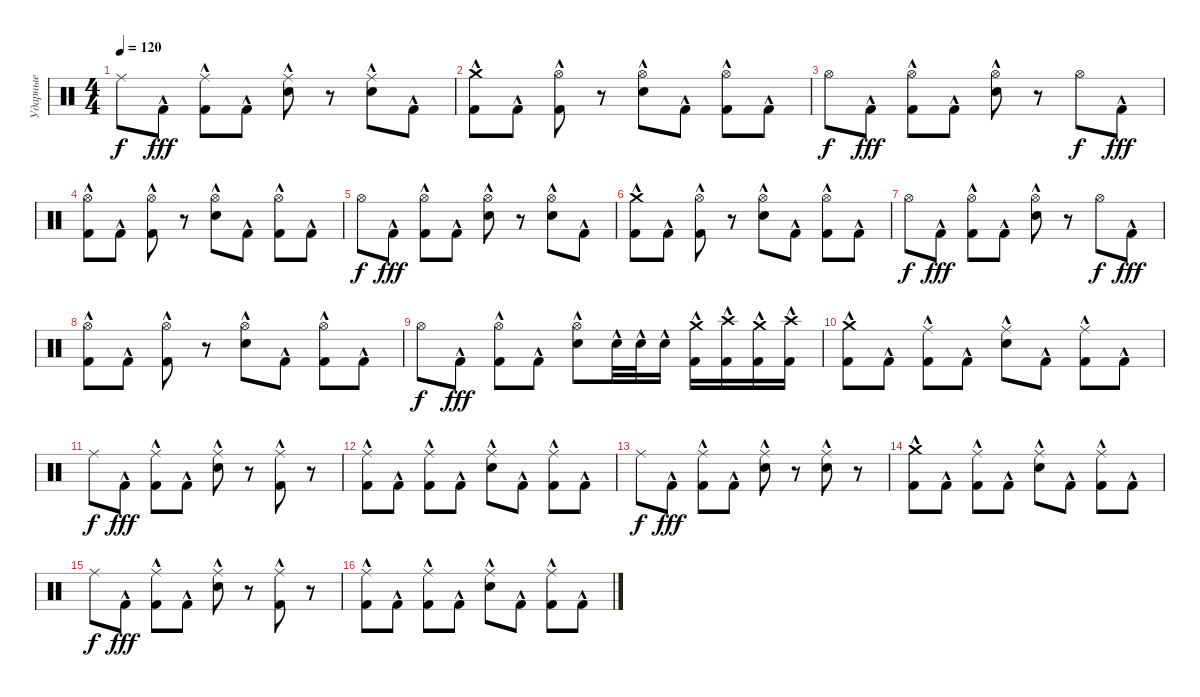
\track ("Ударные" "Ударные") {instrument percussion}
\staff
\articulation defaults
\ts (4 4)
\tempo 120
\clef neutral
\ks c "Ride (middle)".8{dy f} "Kick (hit) 2"{hac}.8{dy fff}
("Ride (middle)" "Kick (hit) 2"{hac}).8 "Kick (hit) 2"{hac}.8 ("Ride (middle)" "Snare (hit) 2"{hac}).8 r.8 ("Ride (middle)" "Snare (hit) 2"{hac}).8 "Kick (hit) 2"{hac}.8 |
("Crash medium (hit)" "Kick (hit) 2"{hac}).8 "Kick (hit) 2"{hac}.8 ("Hi-Hat (open)" "Kick (hit) 2"{hac}).8 r.8 ("Hi-Hat (open)" "Snare (hit) 2"{hac}).8 "Kick (hit) 2"{hac}.8 ("Hi-Hat (open)" "Kick (hit) 2"{hac}).8 "Kick (hit) 2"{hac}.8 |
"Hi-Hat (open)".8{dy f} "Kick (hit) 2"{hac}.8{dy fff} ("Hi-Hat (open)" "Kick (hit) 2"{hac}).8 "Kick (hit) 2"{hac}.8 ("Hi-Hat (open)" "Snare (hit) 2"{hac}).8 r.8 "Hi-Hat (open)".8{dy f} "Kick (hit) 2"{hac}.8{dy fff} |
("Hi-Hat (open)" "Kick (hit) 2"{hac}).8 "Kick (hit) 2"{hac}.8 ("Hi-Hat (open)" "Kick (hit) 2"{hac}).8 r.8 ("Hi-Hat (open)" "Snare (hit) 2"{hac}).8 "Kick (hit) 2"{hac}.8 ("Hi-Hat (open)" "Kick (hit) 2"{hac}).8 "Kick (hit) 2"{hac}.8 |
"Hi-Hat (open)".8{dy f} "Kick (hit) 2"{hac}.8{dy fff} ("Hi-Hat (open)" "Kick (hit) 2"{hac}).8 "Kick (hit) 2"{hac}.8 ("Hi-Hat (open)" "Snare (hit) 2"{hac}).8 r.8 ("Hi-Hat (open)" "Snare (hit) 2"{hac}).8 "Kick (hit) 2"{hac}.8 |
("Crash medium (hit)" "Kick (hit) 2"{hac}).8 "Kick (hit) 2"{hac}.8 ("Hi-Hat (open)" "Kick (hit) 2"{hac}).8 r.8 ("Hi-Hat (open)" "Snare (hit) 2"{hac}).8 "Kick (hit) 2"{hac}.8 ("Hi-Hat (open)" "Kick (hit) 2"{hac}).8 "Kick (hit) 2"{hac}.8 |
"Hi-Hat (open)".8{dy f} "Kick (hit) 2"{hac}.8{dy fff} ("Hi-Hat (open)" "Kick (hit) 2"{hac}).8 "Kick (hit) 2"{hac}.8 ("Hi-Hat (open)" "Snare (hit) 2"{hac}).8 r.8 "Hi-Hat (open)".8{dy f} "Kick (hit) 2"{hac}.8{dy fff} |
("Hi-Hat (open)" "Kick (hit) 2"{hac}).8 "Kick (hit) 2"{hac}.8 ("Hi-Hat (open)" "Kick (hit) 2"{hac}).8 r.8 ("Hi-Hat (open)" "Snare (hit) 2"{hac}).8 "Kick (hit) 2"{hac}.8 ("Hi-Hat (open)" "Kick (hit) 2"{hac}).8 "Kick (hit) 2"{hac}.8 |
"Hi-Hat (open)".8{dy f} "Kick (hit) 2"{hac}.8{dy fff} ("Hi-Hat (open)" "Kick (hit) 2"{hac}).8 "Kick (hit) 2"{hac}.8 ("Hi-Hat (open)" "Snare (hit) 2"{hac}).8 "Snare (hit) 2"{hac}.32 "Snare (hit) 2"{hac}.32 "Snare (hit) 2"{hac}.16 ("Crash medium (hit)" "Kick (hit) 2"{hac}).16 ("Crash high (hit)" "Kick (hit) 2"{hac}).16 ("Crash medium (hit)" "Kick (hit) 2"{hac}).16 ("Crash high (hit)" "Kick (hit) 2"{hac}).16 |
("Crash medium (hit)" "Kick (hit) 2"{hac}).8 "Kick (hit) 2"{hac}.8 ("Ride (middle)" "Kick (hit) 2"{hac}).8 "Kick (hit) 2"{hac}.8 ("Ride (middle)" "Snare (hit) 2"{hac}).8 "Kick (hit) 2"{hac}.8 ("Ride (middle)" "Kick (hit) 2"{hac}).8 "Kick (hit) 2"{hac}.8 |
"Ride (middle)".8{dy f} "Kick (hit) 2"{hac}.8{dy fff} ("Ride (middle)" "Kick (hit) 2"{hac}).8 "Kick (hit) 2"{hac}.8 ("Ride (middle)" "Snare (hit) 2"{hac}).8 r.8 ("Ride (middle)" "Kick (hit) 2"{hac}).8 r.8 |
("Ride (middle)" "Kick (hit) 2"{hac}).8 "Kick (hit) 2"{hac}.8 ("Ride (middle)" "Kick (hit) 2"{hac}).8 "Kick (hit) 2"{hac}.8 ("Ride (middle)" "Snare (hit) 2"{hac}).8 "Kick (hit) 2"{hac}.8 ("Ride (middle)" "Kick (hit) 2"{hac}).8 "Kick (hit) 2"{hac}.8 |
"Ride (middle)".8{dy f} "Kick (hit) 2"{hac}.8{dy fff} ("Ride (middle)" "Kick (hit) 2"{hac}).8 "Kick (hit) 2"{hac}.8 ("Ride (middle)" "Snare (hit) 2"{hac}).8 r.8 ("Ride (middle)" "Snare (hit) 2"{hac}).8 r.8 |
("Crash medium (hit)" "Kick (hit) 2"{hac}).8 "Kick (hit) 2"{hac}.8 ("Ride (middle)" "Kick (hit) 2"{hac}).8 "Kick (hit) 2"{hac}.8 ("Ride (middle)" "Snare (hit) 2"{hac}).8 "Kick (hit) 2"{hac}.8 ("Ride (middle)" "Kick (hit) 2"{hac}).8 "Kick (hit) 2"{hac}.8 |
"Ride (middle)".8{dy f} "Kick (hit) 2"{hac}.8{dy fff} ("Ride (middle)" "Kick (hit) 2"{hac}).8 "Kick (hit) 2"{hac}.8 ("Ride (middle)" "Snare (hit) 2"{hac}).8 r.8 ("Ride (middle)" "Kick (hit) 2"{hac}).8 r.8 |
("Ride (middle)" "Kick (hit) 2"{hac}).8 "Kick (hit) 2"{hac}.8 ("Ride (middle)" "Kick (hit) 2"{hac}).8 "Kick (hit) 2"{hac}.8 ("Ride (middle)" "Snare (hit) 2"{hac}).8 "Kick (hit) 2"{hac}.8 ("Ride (middle)" "Kick (hit) 2"{hac}).8 "Kick (hit) 2"{hac}.8
